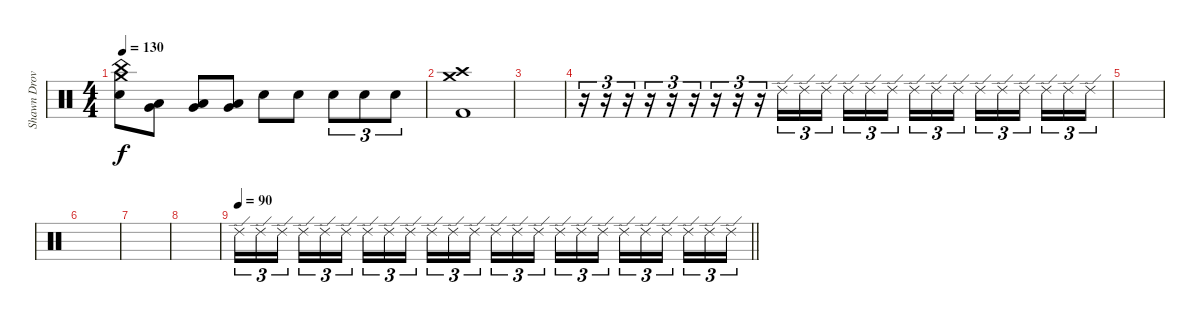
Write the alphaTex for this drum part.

\track ("Shawn Drover" "Shawn Drov") {instrument percussion}
\staff {score}
\articulation defaults
\ts (4 4)
\tempo 130
\clef neutral
\ks c
("China (hit)" "Snare (hit) 2" "Crash medium (hit)").8{dy f} ("Low Floor Tom (hit)" "Very Low Tom (hit)").8 ("Low Floor Tom (hit)" "Very Low Tom (hit)").8 ("Low Floor Tom (hit)" "Very Low Tom (hit)").8 "Snare (hit) 2".8 "Snare (hit) 2".8 "Snare (hit) 2".8{tu (3 2)} "Snare (hit) 2".8{tu (3 2)} "Snare (hit) 2".8{tu (3 2)} |
("Crash medium (hit)" "Crash high (hit)" "Kick (hit) 2").1 |
|
r.16{tu (3 2)} r.16{tu (3 2)} r.16{tu (3 2)} r.16{tu (3 2)} r.16{tu (3 2)} r.16{tu (3 2)} r.16{tu (3 2)} r.16{tu (3 2)} r.16{tu (3 2)} "Ride (edge) 2".16{tu (3 2) volume 13} "Ride (edge) 2".16{tu (3 2)} "Ride (edge) 2".16{tu (3 2)} "Ride (edge) 2".16{tu (3 2)} "Ride (edge) 2".16{tu (3 2)} "Ride (edge) 2".16{tu (3 2) beam splitsecondary} "Ride (edge) 2".16{tu (3 2)} "Ride (edge) 2".16{tu (3 2)} "Ride (edge) 2".16{tu (3 2)} "Ride (edge) 2".16{tu (3 2)} "Ride (edge) 2".16{tu (3 2)} "Ride (edge) 2".16{tu (3 2) beam splitsecondary} "Ride (edge) 2".16{tu (3 2)} "Ride (edge) 2".16{tu (3 2)} "Ride (edge) 2".16{tu (3 2)} |
|
|
|
|
\tempo 90
\barLineRight lightlight "Ride (edge) 2".16{tu (3 2) volume 13} "Ride (edge) 2".16{tu (3 2)} "Ride (edge) 2".16{tu (3 2) beam splitsecondary} "Ride (edge) 2".16{tu (3 2)} "Ride (edge) 2".16{tu (3 2)} "Ride (edge) 2".16{tu (3 2)} "Ride (edge) 2".16{tu (3 2)} "Ride (edge) 2".16{tu (3 2)} "Ride (edge) 2".16{tu (3 2) beam splitsecondary} "Ride (edge) 2".16{tu (3 2)} "Ride (edge) 2".16{tu (3 2)} "Ride (edge) 2".16{tu (3 2)} "Ride (edge) 2".16{tu (3 2)} "Ride (edge) 2".16{tu (3 2)} "Ride (edge) 2".16{tu (3 2) beam splitsecondary} "Ride (edge) 2".16{tu (3 2)} "Ride (edge) 2".16{tu (3 2)} "Ride (edge) 2".16{tu (3 2)} "Ride (edge) 2".16{tu (3 2)} "Ride (edge) 2".16{tu (3 2)} "Ride (edge) 2".16{tu (3 2) beam splitsecondary} "Ride (edge) 2".16{tu (3 2)} "Ride (edge) 2".16{tu (3 2)} "Ride (edge) 2".16{tu (3 2)}
